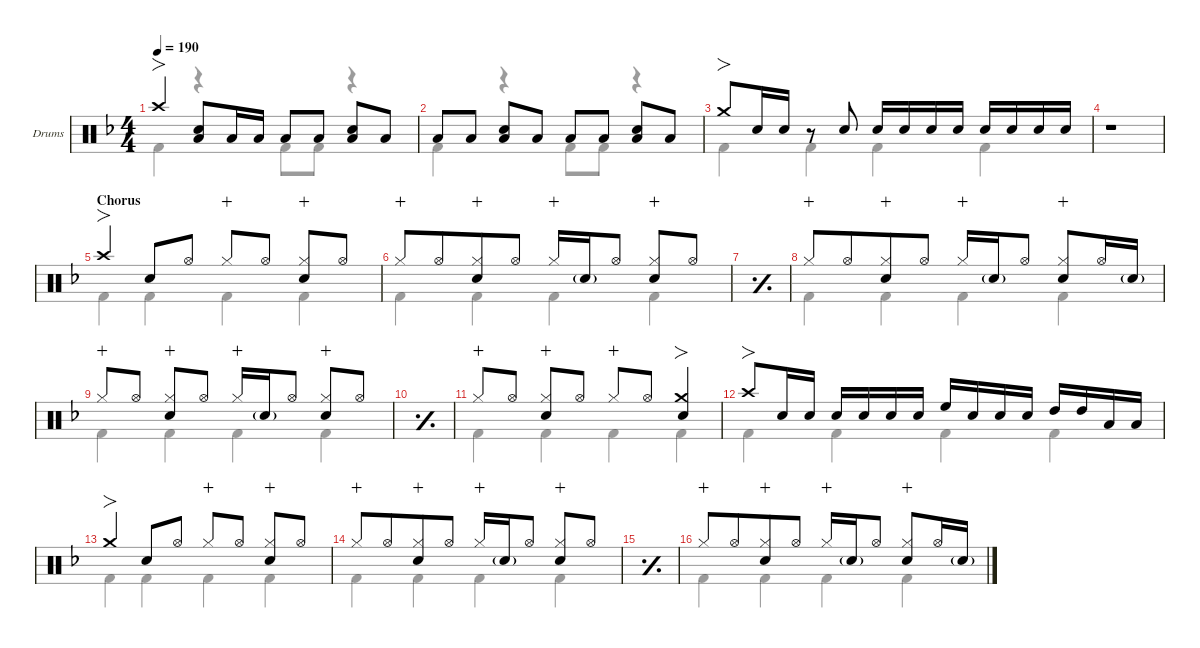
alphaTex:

\defaultSystemsLayout 4
\hideDynamics
\bracketExtendMode nobrackets
\firstSystemTrackNameOrientation horizontal
\track ("Drums" "Drums") {defaultSystemsLayout 4 instrument percussion}
\staff {score}
\articulation defaults
\voice
\ts (4 4)
\tempo 190
\clef neutral
\scale
0.266618
\ks dminor "Crash high (hit)"{acc forcenatural}.4{fo dy f beam Up}
("Snare (hit) 2"{acc forcenatural} "Low Tom (hit)"{acc forcenatural}).8{beam Up} "Low Tom (hit)"{acc forcenatural}.16{beam Up} "Low Tom (hit)"{acc forcenatural}.16{beam Up} "Low Tom (hit)"{acc forcenatural}.8{beam Up} "Low Tom (hit)"{acc forcenatural}.8{beam Up} ("Low Tom (hit)"{acc forcenatural} "Snare (hit) 2"{acc forcenatural}).8{beam Up} "Low Tom (hit)"{acc forcenatural}.8{beam Up} |
\scale
0.244461 "Low Tom (hit)"{acc forcenatural}.8{beam Up} "Low Tom (hit)"{acc forcenatural}.8{beam Up} ("Low Tom (hit)"{acc forcenatural} "Snare (hit) 2"{acc forcenatural}).8{beam Up} "Low Tom (hit)"{acc forcenatural}.8{beam Up} "Low Tom (hit)"{acc forcenatural}.8{beam Up} "Low Tom (hit)"{acc forcenatural}.8{beam Up} ("Low Tom (hit)"{acc forcenatural} "Snare (hit) 2"{acc forcenatural}).8{beam Up} "Low Tom (hit)"{acc forcenatural}.8{beam Up} |
\scale
0.244461 "Crash medium (hit)"{acc forcenatural}.8{fo beam Up} "Snare (hit) 2"{acc forcenatural}.16{beam Up} "Snare (hit) 2"{acc forcenatural}.16{beam Up beam split} r.8{beam Up beam split} "Snare (hit) 2"{acc forcenatural}.8{beam Up} "Snare (hit) 2"{acc forcenatural}.16{beam Up} "Snare (hit) 2"{acc forcenatural}.16{dy mp beam Up} "Snare (hit) 2"{acc forcenatural}.16{dy mf beam Up} "Snare (hit) 2"{acc forcenatural}.16{dy mp beam Up beam split} "Snare (hit) 2"{acc forcenatural}.16{dy f beam Up} "Snare (hit) 2"{acc forcenatural}.16{dy mp beam Up} "Snare (hit) 2"{acc forcenatural}.16{dy mf beam Up} "Snare (hit) 2"{acc forcenatural}.16{dy mp beam Up} |
\scale
0.244461 r.1{beam Up} |
\section ("" "Chorus")
\scale
0.266618 "Crash high (hit)"{acc forcenatural}.4{fo dy f beam Up} "Snare (hit) 2"{acc forcenatural}.8{beam Up} "Hi-Hat (open)"{acc forcenatural}.8{beam Up} "Hi-Hat (closed)"{acc forcenatural}.8{dy mp wahc beam Up} "Hi-Hat (open)"{acc forcenatural}.8{dy f beam Up} ("Hi-Hat (closed)"{acc forcenatural} "Snare (hit) 2"{acc forcenatural}).8{wahc beam Up} "Hi-Hat (open)"{acc forcenatural}.8{beam Up} |
\scale
0.244461 "Hi-Hat (closed)"{acc forcenatural}.8{dy mp wahc beam Up beam merge} "Hi-Hat (open)"{acc forcenatural}.8{dy f beam Up beam merge} ("Hi-Hat (closed)"{acc forcenatural} "Snare (hit) 2"{acc forcenatural}).8{wahc beam Up beam merge} "Hi-Hat (open)"{acc forcenatural}.8{beam Up} "Hi-Hat (closed)"{acc forcenatural}.16{dy mp wahc beam Up} "Snare (hit) 2"{g acc forcenatural}.16{dy mf beam Up} "Hi-Hat (open)"{acc forcenatural}.8{dy f beam Up beam split} ("Hi-Hat (closed)"{acc forcenatural} "Snare (hit) 2"{acc forcenatural}).8{wahc beam Up} "Hi-Hat (open)"{acc forcenatural}.8{beam Up} |
\simile simple
\scale
0.24446 |
\simile none
\scale
0.244461 "Hi-Hat (closed)"{acc forcenatural}.8{dy mp wahc beam Up beam merge} "Hi-Hat (open)"{acc forcenatural}.8{dy f beam Up beam merge} ("Hi-Hat (closed)"{acc forcenatural} "Snare (hit) 2"{acc forcenatural}).8{wahc beam Up beam merge} "Hi-Hat (open)"{acc forcenatural}.8{beam Up} "Hi-Hat (closed)"{acc forcenatural}.16{dy mp wahc beam Up} "Snare (hit) 2"{g acc forcenatural}.16{dy mf beam Up} "Hi-Hat (open)"{acc forcenatural}.8{dy f beam Up beam split} ("Hi-Hat (closed)"{acc forcenatural} "Snare (hit) 2"{acc forcenatural}).8{wahc beam Up} "Hi-Hat (open)"{acc forcenatural}.16{beam Up} "Snare (hit) 2"{g acc forcenatural}.16{dy mf beam Up} |
\scale
0.266618 "Hi-Hat (closed)"{acc forcenatural}.8{dy mp wahc beam Up} "Hi-Hat (open)"{acc forcenatural}.8{dy f beam Up} ("Hi-Hat (closed)"{acc forcenatural} "Snare (hit) 2"{acc forcenatural}).8{wahc beam Up} "Hi-Hat (open)"{acc forcenatural}.8{beam Up} "Hi-Hat (closed)"{acc forcenatural}.16{dy mp wahc beam Up} "Snare (hit) 2"{g acc forcenatural}.16{dy mf beam Up} "Hi-Hat (open)"{acc forcenatural}.8{dy f beam Up beam split} ("Hi-Hat (closed)"{acc forcenatural} "Snare (hit) 2"{acc forcenatural}).8{wahc beam Up} "Hi-Hat (open)"{acc forcenatural}.8{beam Up} |
\simile simple
\scale
0.244461 |
\simile none
\scale
0.24446 "Hi-Hat (closed)"{acc forcenatural}.8{dy mp wahc beam Up} "Hi-Hat (open)"{acc forcenatural}.8{dy f beam Up} ("Hi-Hat (closed)"{acc forcenatural} "Snare (hit) 2"{acc forcenatural}).8{wahc beam Up} "Hi-Hat (open)"{acc forcenatural}.8{beam Up} "Hi-Hat (closed)"{acc forcenatural}.8{dy mp wahc beam Up} "Hi-Hat (open)"{acc forcenatural}.8{dy f beam Up} ("Crash medium (hit)"{acc forcenatural} "Snare (hit) 2"{acc forcenatural}).4{fo beam Up} |
\scale
0.244461 "Crash high (hit)"{acc forcenatural}.8{fo beam Up} "Snare (hit) 2"{acc forcenatural}.16{beam Up} "Snare (hit) 2"{acc forcenatural}.16{dy mf beam Up beam split} "Snare (hit) 2"{acc forcenatural}.16{dy f beam Up} "Snare (hit) 2"{acc forcenatural}.16{dy mp beam Up} "Snare (hit) 2"{acc forcenatural}.16{dy mf beam Up} "Snare (hit) 2"{acc forcenatural}.16{dy mp beam Up} "High Floor Tom (hit)"{acc forcenatural}.16{dy f beam Up} "Snare (hit) 2"{acc forcenatural}.16{dy mp beam Up} "Snare (hit) 2"{acc forcenatural}.16{dy mf beam Up} "Snare (hit) 2"{acc forcenatural}.16{dy mp beam Up beam split} "High Tom (hit)"{acc forcenatural}.16{dy f beam Up} "High Tom (hit)"{acc forcenatural}.16{beam Up} "Low Tom (hit)"{acc forcenatural}.16{beam Up} "Low Tom (hit)"{acc forcenatural}.16{beam Up} |
\scale
0.266618 "Crash medium (hit)"{acc forcenatural}.4{fo beam Up} "Snare (hit) 2"{acc forcenatural}.8{beam Up} "Hi-Hat (open)"{acc forcenatural}.8{beam Up} "Hi-Hat (closed)"{acc forcenatural}.8{dy mp wahc beam Up} "Hi-Hat (open)"{acc forcenatural}.8{dy f beam Up} ("Hi-Hat (closed)"{acc forcenatural} "Snare (hit) 2"{acc forcenatural}).8{wahc beam Up} "Hi-Hat (open)"{acc forcenatural}.8{beam Up} |
\scale
0.244461 "Hi-Hat (closed)"{acc forcenatural}.8{dy mp wahc beam Up beam merge} "Hi-Hat (open)"{acc forcenatural}.8{dy f beam Up beam merge} ("Hi-Hat (closed)"{acc forcenatural} "Snare (hit) 2"{acc forcenatural}).8{wahc beam Up beam merge} "Hi-Hat (open)"{acc forcenatural}.8{beam Up} "Hi-Hat (closed)"{acc forcenatural}.16{dy mp wahc beam Up} "Snare (hit) 2"{g acc forcenatural}.16{dy mf beam Up} "Hi-Hat (open)"{acc forcenatural}.8{dy f beam Up beam split} ("Hi-Hat (closed)"{acc forcenatural} "Snare (hit) 2"{acc forcenatural}).8{wahc beam Up} "Hi-Hat (open)"{acc forcenatural}.8{beam Up} |
\simile simple
\scale
0.24446 |
\simile none
\scale
0.244461 "Hi-Hat (closed)"{acc forcenatural}.8{dy mp wahc beam Up beam merge} "Hi-Hat (open)"{acc forcenatural}.8{dy f beam Up beam merge} ("Hi-Hat (closed)"{acc forcenatural} "Snare (hit) 2"{acc forcenatural}).8{wahc beam Up beam merge} "Hi-Hat (open)"{acc forcenatural}.8{beam Up} "Hi-Hat (closed)"{acc forcenatural}.16{dy mp wahc beam Up} "Snare (hit) 2"{g acc forcenatural}.16{dy mf beam Up} "Hi-Hat (open)"{acc forcenatural}.8{dy f beam Up beam split} ("Hi-Hat (closed)"{acc forcenatural} "Snare (hit) 2"{acc forcenatural}).8{wahc beam Up} "Hi-Hat (open)"{acc forcenatural}.16{beam Up} "Snare (hit) 2"{g acc forcenatural}.16{dy mf beam Up}
\voice
\clef neutral
\ottava regular
\simile none
\scale
0.266618
\ks dminor "Kick (hit) 2"{acc forcenatural}.4{dy f beam Down}
r.4{beam Down} "Kick (hit) 2"{acc forcenatural}.8{beam Down} "Kick (hit) 2"{acc forcenatural}.8{beam Down} r.4{beam Down} |
\scale
0.244461 "Kick (hit) 2"{acc forcenatural}.4{beam Down} r.4{beam Down} "Kick (hit) 2"{acc forcenatural}.8{beam Down} "Kick (hit) 2"{acc forcenatural}.8{beam Down} r.4{beam Down} |
\scale
0.244461 "Kick (hit) 2"{acc forcenatural}.4{beam Down} "Kick (hit) 2"{acc forcenatural}.4{beam Down} "Kick (hit) 2"{acc forcenatural}.4{beam Down} "Kick (hit) 2"{acc forcenatural}.4{beam Down} |
\scale
0.244461 r.1{beam Down} |
\scale
0.266618 "Kick (hit) 2"{acc forcenatural}.4{beam Down} "Kick (hit) 2"{acc forcenatural}.4{beam Down} "Kick (hit) 2"{acc forcenatural}.4{beam Down} "Kick (hit) 2"{acc forcenatural}.4{beam Down} |
\scale
0.244461 "Kick (hit) 2"{acc forcenatural}.4{beam Down} "Kick (hit) 2"{acc forcenatural}.4{beam Down} "Kick (hit) 2"{acc forcenatural}.4{beam Down} "Kick (hit) 2"{acc forcenatural}.4{beam Down} |
\simile simple
\scale
0.24446 |
\simile none
\scale
0.244461 "Kick (hit) 2"{acc forcenatural}.4{beam Down} "Kick (hit) 2"{acc forcenatural}.4{beam Down} "Kick (hit) 2"{acc forcenatural}.4{beam Down} "Kick (hit) 2"{acc forcenatural}.4{beam Down} |
\scale
0.266618 "Kick (hit) 2"{acc forcenatural}.4{beam Down} "Kick (hit) 2"{acc forcenatural}.4{beam Down} "Kick (hit) 2"{acc forcenatural}.4{beam Down} "Kick (hit) 2"{acc forcenatural}.4{beam Down} |
\simile simple
\scale
0.244461 |
\simile none
\scale
0.24446 "Kick (hit) 2"{acc forcenatural}.4{beam Down} "Kick (hit) 2"{acc forcenatural}.4{beam Down} "Kick (hit) 2"{acc forcenatural}.4{beam Down} "Kick (hit) 2"{acc forcenatural}.4{beam Down} |
\scale
0.244461 "Kick (hit) 2"{acc forcenatural}.4{beam Down} "Kick (hit) 2"{acc forcenatural}.4{beam Down} "Kick (hit) 2"{acc forcenatural}.4{beam Down} "Kick (hit) 2"{acc forcenatural}.4{beam Down} |
\scale
0.266618 "Kick (hit) 2"{acc forcenatural}.4{beam Down} "Kick (hit) 2"{acc forcenatural}.4{beam Down} "Kick (hit) 2"{acc forcenatural}.4{beam Down} "Kick (hit) 2"{acc forcenatural}.4{beam Down} |
\scale
0.244461 "Kick (hit) 2"{acc forcenatural}.4{beam Down} "Kick (hit) 2"{acc forcenatural}.4{beam Down} "Kick (hit) 2"{acc forcenatural}.4{beam Down} "Kick (hit) 2"{acc forcenatural}.4{beam Down} |
\simile simple
\scale
0.24446 |
\simile none
\scale
0.244461 "Kick (hit) 2"{acc forcenatural}.4{beam Down} "Kick (hit) 2"{acc forcenatural}.4{beam Down} "Kick (hit) 2"{acc forcenatural}.4{beam Down} "Kick (hit) 2"{acc forcenatural}.4{beam Down}
